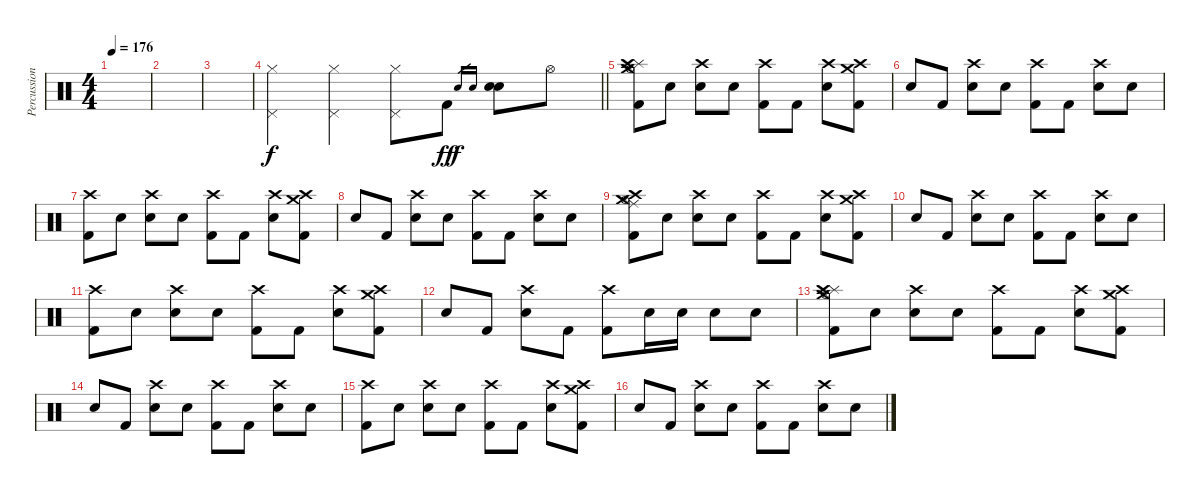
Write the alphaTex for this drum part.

\track ("Percussion" "Percussion") {instrument percussion}
\staff {score}
\articulation defaults
\ts (4 4)
\tempo 176
\clef neutral
\ks c
|
|
|
\barLineRight lightlight
("Pedal Hi-Hat (hit)" "Hi-Hat (closed)").4 ("Pedal Hi-Hat (hit)" "Hi-Hat (closed)").4 ("Pedal Hi-Hat (hit)" "Hi-Hat (closed)").8 "Kick (hit) 2".8{dy ff} "Electric Snare (hit)".16{gr dy f} "Electric Snare (hit)".16{gr} ("Electric Snare (hit)" "Electric Snare (hit)").8 "Hi-Hat (open)".8 |
("Splash (hit)" "Hi-Hat (open)" "Crash medium (hit)" "Crash high (hit)" "Kick (hit) 2").8 "Snare (hit)"{x}.8 ("Crash high (hit)" "Electric Snare (hit)").8 "Snare (hit)"{x}.8 ("Crash high (hit)" "Kick (hit) 2").8 "Kick (hit) 2".8 ("Crash high (hit)" "Electric Snare (hit)").8 ("Crash high (hit)" "Crash medium (hit)" "Kick (hit) 2").8 |
"Snare (hit)"{x}.8 "Kick (hit) 2".8 ("Crash high (hit)" "Electric Snare (hit)").8 "Snare (hit)"{x}.8 ("Crash high (hit)" "Kick (hit) 2").8 "Kick (hit) 2".8 ("Crash high (hit)" "Electric Snare (hit)").8 "Snare (hit)"{x}.8 |
("Crash high (hit)" "Kick (hit) 2").8 "Snare (hit)"{x}.8 ("Crash high (hit)" "Electric Snare (hit)").8 "Snare (hit)"{x}.8 ("Crash high (hit)" "Kick (hit) 2").8 "Kick (hit) 2".8 ("Crash high (hit)" "Electric Snare (hit)").8 ("Crash high (hit)" "Crash medium (hit)" "Kick (hit) 2").8 |
"Snare (hit)"{x}.8 "Kick (hit) 2".8 ("Crash high (hit)" "Electric Snare (hit)").8 "Snare (hit)"{x}.8 ("Crash high (hit)" "Kick (hit) 2").8 "Kick (hit) 2".8 ("Crash high (hit)" "Electric Snare (hit)").8 "Electric Snare (hit)".8 |
("Ride (middle)" "Hi-Hat (open)" "Crash medium (hit)" "Crash high (hit)" "Kick (hit) 2").8 "Snare (hit)"{x}.8 ("Crash high (hit)" "Electric Snare (hit)").8 "Snare (hit)"{x}.8 ("Crash high (hit)" "Kick (hit) 2").8 "Kick (hit) 2".8 ("Crash high (hit)" "Electric Snare (hit)").8 ("Crash high (hit)" "Crash medium (hit)" "Kick (hit) 2").8 |
"Snare (hit)"{x}.8 "Kick (hit) 2".8 ("Crash high (hit)" "Electric Snare (hit)").8 "Snare (hit)"{x}.8 ("Crash high (hit)" "Kick (hit) 2").8 "Kick (hit) 2".8 ("Crash high (hit)" "Electric Snare (hit)").8 "Snare (hit)"{x}.8 |
("Crash high (hit)" "Kick (hit) 2").8 "Snare (hit)"{x}.8 ("Crash high (hit)" "Electric Snare (hit)").8 "Snare (hit)"{x}.8 ("Crash high (hit)" "Kick (hit) 2").8 "Kick (hit) 2".8 ("Crash high (hit)" "Electric Snare (hit)").8 ("Crash high (hit)" "Crash medium (hit)" "Kick (hit) 2").8 |
"Snare (hit)"{x}.8 "Kick (hit) 2".8 ("Crash high (hit)" "Electric Snare (hit)").8 "Kick (hit) 2".8 ("Crash high (hit)" "Kick (hit) 2").8 "Electric Snare (hit)".16 "Electric Snare (hit)".16 "Electric Snare (hit)".8 "Electric Snare (hit)".8 |
("Splash (hit)" "Hi-Hat (open)" "Crash medium (hit)" "Crash high (hit)" "Kick (hit) 2").8 "Snare (hit)"{x}.8 ("Crash high (hit)" "Electric Snare (hit)").8 "Snare (hit)"{x}.8 ("Crash high (hit)" "Kick (hit) 2").8 "Kick (hit) 2".8 ("Crash high (hit)" "Electric Snare (hit)").8 ("Crash high (hit)" "Crash medium (hit)" "Kick (hit) 2").8 |
"Snare (hit)"{x}.8 "Kick (hit) 2".8 ("Crash high (hit)" "Electric Snare (hit)").8 "Snare (hit)"{x}.8 ("Crash high (hit)" "Kick (hit) 2").8 "Kick (hit) 2".8 ("Crash high (hit)" "Electric Snare (hit)").8 "Snare (hit)"{x}.8 |
("Crash high (hit)" "Kick (hit) 2").8 "Snare (hit)"{x}.8 ("Crash high (hit)" "Electric Snare (hit)").8 "Snare (hit)"{x}.8 ("Crash high (hit)" "Kick (hit) 2").8 "Kick (hit) 2".8 ("Crash high (hit)" "Electric Snare (hit)").8 ("Crash high (hit)" "Crash medium (hit)" "Kick (hit) 2").8 |
"Snare (hit)"{x}.8 "Kick (hit) 2".8 ("Crash high (hit)" "Electric Snare (hit)").8 "Snare (hit)"{x}.8 ("Crash high (hit)" "Kick (hit) 2").8 "Kick (hit) 2".8 ("Crash high (hit)" "Electric Snare (hit)").8 "Snare (hit)"{x}.8
